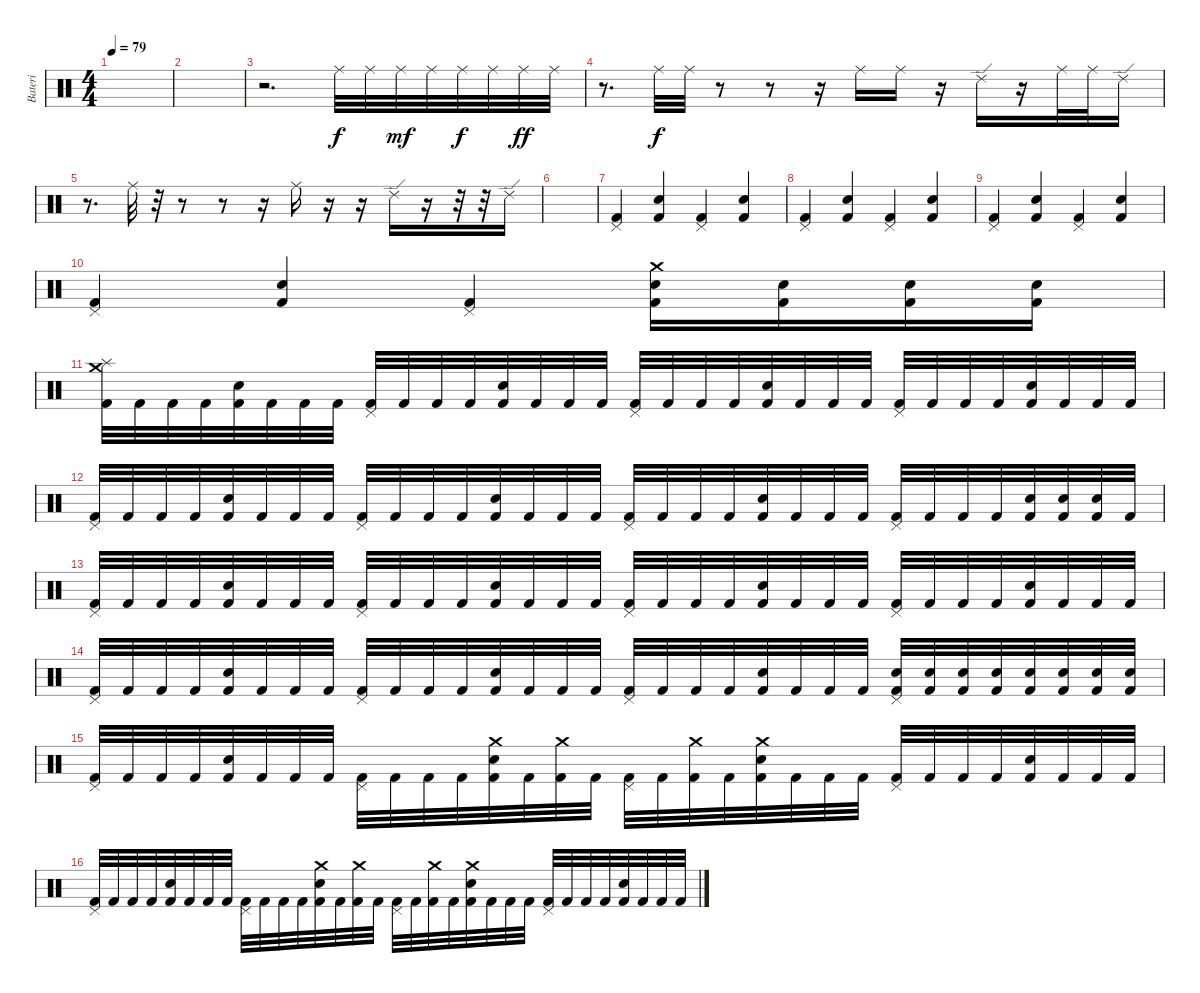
\track ("Bateri" "Bateri") {instrument percussion}
\staff {score}
\articulation defaults
\ts (4 4)
\tempo 79
\clef neutral
\ks c
|
|
r.2{d} "Ride (middle)".32 "Ride (middle)".32 "Ride (middle)".32{dy mf} "Ride (middle)".32 "Ride (middle)".32{dy f} "Ride (middle)".32 "Ride (middle)".32{dy ff} "Ride (middle)".32 |
r.8{d} "Ride (middle)".32{dy f} "Ride (middle)".32 r.8 r.8 r.16 "Ride (middle)".16 "Ride (middle)".16 r.16 "Ride (edge) 2".16 r.16 "Ride (middle)".32 "Ride (middle)".32 "Ride (edge) 2".16 |
r.8{d} "Ride (middle)".32 r.32 r.8 r.8 r.16 "Ride (middle)".16 r.16 r.16 "Ride (edge) 2".16 r.16 r.32 r.32 "Ride (edge) 2".16 |
|
("Pedal Hi-Hat (hit)" "Kick (hit) 2").4 ("Electric Snare (hit)" "Kick (hit) 2").4 ("Pedal Hi-Hat (hit)" "Kick (hit) 2").4 ("Electric Snare (hit)" "Kick (hit) 2").4 |
("Pedal Hi-Hat (hit)" "Kick (hit) 2").4 ("Electric Snare (hit)" "Kick (hit) 2").4 ("Pedal Hi-Hat (hit)" "Kick (hit) 2").4 ("Electric Snare (hit)" "Kick (hit) 2").4 |
("Pedal Hi-Hat (hit)" "Kick (hit) 2").4 ("Electric Snare (hit)" "Kick (hit) 2").4 ("Pedal Hi-Hat (hit)" "Kick (hit) 2").4 ("Electric Snare (hit)" "Kick (hit) 2").4 |
("Pedal Hi-Hat (hit)" "Kick (hit) 2").4 ("Electric Snare (hit)" "Kick (hit) 2").4 ("Pedal Hi-Hat (hit)" "Kick (hit) 2").4 ("Crash medium (hit)" "Electric Snare (hit)" "Kick (hit) 2").16 ("Electric Snare (hit)" "Kick (hit) 2").16 ("Electric Snare (hit)" "Kick (hit) 2").16 ("Electric Snare (hit)" "Kick (hit) 2").16 |
("Crash medium (hit)" "Splash (hit)" "Kick (hit) 2").32 "Kick (hit) 2".32 "Kick (hit) 2".32 "Kick (hit) 2".32 ("Electric Snare (hit)" "Kick (hit) 2").32 "Kick (hit) 2".32 "Kick (hit) 2".32 "Kick (hit) 2".32 ("Pedal Hi-Hat (hit)" "Kick (hit) 2").32 "Kick (hit) 2".32 "Kick (hit) 2".32 "Kick (hit) 2".32 ("Electric Snare (hit)" "Kick (hit) 2").32 "Kick (hit) 2".32 "Kick (hit) 2".32 "Kick (hit) 2".32 ("Pedal Hi-Hat (hit)" "Kick (hit) 2").32 "Kick (hit) 2".32 "Kick (hit) 2".32 "Kick (hit) 2".32 ("Electric Snare (hit)" "Kick (hit) 2").32 "Kick (hit) 2".32 "Kick (hit) 2".32 "Kick (hit) 2".32 ("Pedal Hi-Hat (hit)" "Kick (hit) 2").32 "Kick (hit) 2".32 "Kick (hit) 2".32 "Kick (hit) 2".32 ("Electric Snare (hit)" "Kick (hit) 2").32 "Kick (hit) 2".32 "Kick (hit) 2".32 "Kick (hit) 2".32 |
("Pedal Hi-Hat (hit)" "Kick (hit) 2").32 "Kick (hit) 2".32 "Kick (hit) 2".32 "Kick (hit) 2".32 ("Electric Snare (hit)" "Kick (hit) 2").32 "Kick (hit) 2".32 "Kick (hit) 2".32 "Kick (hit) 2".32 ("Pedal Hi-Hat (hit)" "Kick (hit) 2").32 "Kick (hit) 2".32 "Kick (hit) 2".32 "Kick (hit) 2".32 ("Electric Snare (hit)" "Kick (hit) 2").32 "Kick (hit) 2".32 "Kick (hit) 2".32 "Kick (hit) 2".32 ("Pedal Hi-Hat (hit)" "Kick (hit) 2").32 "Kick (hit) 2".32 "Kick (hit) 2".32 "Kick (hit) 2".32 ("Electric Snare (hit)" "Kick (hit) 2").32 "Kick (hit) 2".32 "Kick (hit) 2".32 "Kick (hit) 2".32 ("Pedal Hi-Hat (hit)" "Kick (hit) 2").32 "Kick (hit) 2".32 "Kick (hit) 2".32 "Kick (hit) 2".32 ("Electric Snare (hit)" "Kick (hit) 2").32 ("Electric Snare (hit)" "Kick (hit) 2").32 ("Electric Snare (hit)" "Kick (hit) 2").32 "Kick (hit) 2".32 |
("Pedal Hi-Hat (hit)" "Kick (hit) 2").32 "Kick (hit) 2".32 "Kick (hit) 2".32 "Kick (hit) 2".32 ("Electric Snare (hit)" "Kick (hit) 2").32 "Kick (hit) 2".32 "Kick (hit) 2".32 "Kick (hit) 2".32 ("Pedal Hi-Hat (hit)" "Kick (hit) 2").32 "Kick (hit) 2".32 "Kick (hit) 2".32 "Kick (hit) 2".32 ("Electric Snare (hit)" "Kick (hit) 2").32 "Kick (hit) 2".32 "Kick (hit) 2".32 "Kick (hit) 2".32 ("Pedal Hi-Hat (hit)" "Kick (hit) 2").32 "Kick (hit) 2".32 "Kick (hit) 2".32 "Kick (hit) 2".32 ("Electric Snare (hit)" "Kick (hit) 2").32 "Kick (hit) 2".32 "Kick (hit) 2".32 "Kick (hit) 2".32 ("Pedal Hi-Hat (hit)" "Kick (hit) 2").32 "Kick (hit) 2".32 "Kick (hit) 2".32 "Kick (hit) 2".32 ("Electric Snare (hit)" "Kick (hit) 2").32 "Kick (hit) 2".32 "Kick (hit) 2".32 "Kick (hit) 2".32 |
("Pedal Hi-Hat (hit)" "Kick (hit) 2").32 "Kick (hit) 2".32 "Kick (hit) 2".32 "Kick (hit) 2".32 ("Electric Snare (hit)" "Kick (hit) 2").32 "Kick (hit) 2".32 "Kick (hit) 2".32 "Kick (hit) 2".32 ("Pedal Hi-Hat (hit)" "Kick (hit) 2").32 "Kick (hit) 2".32 "Kick (hit) 2".32 "Kick (hit) 2".32 ("Electric Snare (hit)" "Kick (hit) 2").32 "Kick (hit) 2".32 "Kick (hit) 2".32 "Kick (hit) 2".32 ("Pedal Hi-Hat (hit)" "Kick (hit) 2").32 "Kick (hit) 2".32 "Kick (hit) 2".32 "Kick (hit) 2".32 ("Electric Snare (hit)" "Kick (hit) 2").32 "Kick (hit) 2".32 "Kick (hit) 2".32 "Kick (hit) 2".32 ("Pedal Hi-Hat (hit)" "Electric Snare (hit)" "Kick (hit) 2").32 ("Electric Snare (hit)" "Kick (hit) 2").32 ("Electric Snare (hit)" "Kick (hit) 2").32 ("Electric Snare (hit)" "Kick (hit) 2").32 ("Electric Snare (hit)" "Kick (hit) 2").32 ("Electric Snare (hit)" "Kick (hit) 2").32 ("Electric Snare (hit)" "Kick (hit) 2").32 ("Electric Snare (hit)" "Kick (hit) 2").32 |
("Pedal Hi-Hat (hit)" "Kick (hit) 2").32 "Kick (hit) 2".32 "Kick (hit) 2".32 "Kick (hit) 2".32 ("Electric Snare (hit)" "Kick (hit) 2").32 "Kick (hit) 2".32 "Kick (hit) 2".32 "Kick (hit) 2".32 ("Pedal Hi-Hat (hit)" "Kick (hit) 2").32 "Kick (hit) 2".32 "Kick (hit) 2".32 "Kick (hit) 2".32 ("Crash medium (hit)" "Electric Snare (hit)" "Kick (hit) 2").32 "Kick (hit) 2".32 ("Crash medium (hit)" "Kick (hit) 2").32 "Kick (hit) 2".32 ("Pedal Hi-Hat (hit)" "Kick (hit) 2").32 "Kick (hit) 2".32 ("Crash medium (hit)" "Kick (hit) 2").32 "Kick (hit) 2".32 ("Crash medium (hit)" "Electric Snare (hit)" "Kick (hit) 2").32 "Kick (hit) 2".32 "Kick (hit) 2".32 "Kick (hit) 2".32 ("Pedal Hi-Hat (hit)" "Kick (hit) 2").32 "Kick (hit) 2".32 "Kick (hit) 2".32 "Kick (hit) 2".32 ("Electric Snare (hit)" "Kick (hit) 2").32 "Kick (hit) 2".32 "Kick (hit) 2".32 "Kick (hit) 2".32 |
("Pedal Hi-Hat (hit)" "Kick (hit) 2").32 "Kick (hit) 2".32 "Kick (hit) 2".32 "Kick (hit) 2".32 ("Electric Snare (hit)" "Kick (hit) 2").32 "Kick (hit) 2".32 "Kick (hit) 2".32 "Kick (hit) 2".32 ("Pedal Hi-Hat (hit)" "Kick (hit) 2").32 "Kick (hit) 2".32 "Kick (hit) 2".32 "Kick (hit) 2".32 ("Crash medium (hit)" "Electric Snare (hit)" "Kick (hit) 2").32 "Kick (hit) 2".32 ("Crash medium (hit)" "Kick (hit) 2").32 "Kick (hit) 2".32 ("Pedal Hi-Hat (hit)" "Kick (hit) 2").32 "Kick (hit) 2".32 ("Crash medium (hit)" "Kick (hit) 2").32 "Kick (hit) 2".32 ("Crash medium (hit)" "Electric Snare (hit)" "Kick (hit) 2").32 "Kick (hit) 2".32 "Kick (hit) 2".32 "Kick (hit) 2".32 ("Pedal Hi-Hat (hit)" "Kick (hit) 2").32 "Kick (hit) 2".32 "Kick (hit) 2".32 "Kick (hit) 2".32 ("Electric Snare (hit)" "Kick (hit) 2").32 "Kick (hit) 2".32 "Kick (hit) 2".32 "Kick (hit) 2".32
